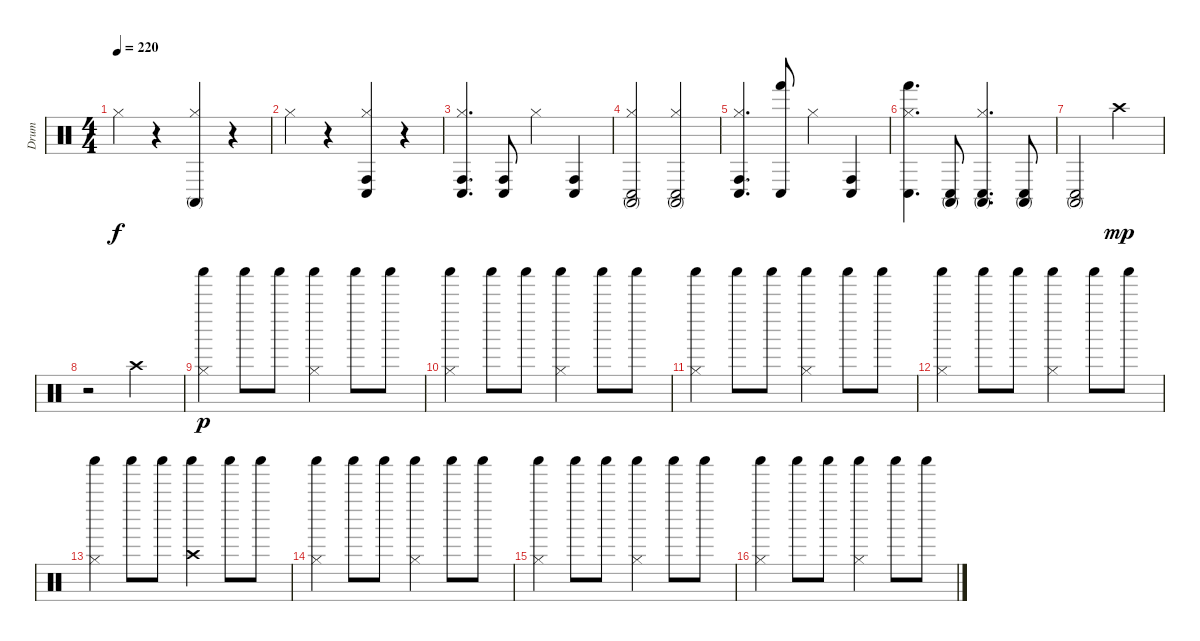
\track ("Drum" "Drum") {instrument percussion}
\staff {score}
\articulation defaults
\ts (4 4)
\tempo 220
\clef neutral
\ks c "Hi-Hat (closed)".4{dy f}
r.4 ("Hi-Hat (closed)" "Conga high (mute)").4 r.4 |
"Hi-Hat (closed)".4 r.4 ("Hi-Hat (closed)" "Conga low (hit)" "Conga high (hit)").4 r.4 |
("Hi-Hat (closed)" "Conga low (hit)" "Conga high (hit)").4{d} ("Conga low (hit)" "Conga high (hit)").8 "Hi-Hat (closed)".4 ("Conga low (hit)" "Conga high (hit)").4 |
("Hi-Hat (closed)" "Conga low (hit)" "Conga high (mute)").2 ("Hi-Hat (closed)" "Conga low (hit)" "Conga high (mute)").2 |
("Hi-Hat (closed)" "Conga low (hit)" "Conga high (hit)").4{d} ("Conga low (hit)" "Hand (hit)").8 "Hi-Hat (closed)".4 ("Conga low (hit)" "Conga high (hit)").4 |
("Hi-Hat (closed)" "Conga low (hit)" "Hand (hit)").4{d} ("Conga low (hit)" "Conga high (mute)").8 ("Hi-Hat (closed)" "Conga low (hit)" "Conga high (mute)").4{d} ("Conga low (hit)" "Conga high (mute)").8 |
("Conga low (hit)" "Conga high (mute)").2 "Crash high (hit)".2{dy mp} |
r.2 "Crash high (hit)".2 |
("Hi-Hat (closed)" "Shaker (hit)").4{dy p} "Shaker (hit)".8 "Shaker (hit)".8 ("Hi-Hat (closed)" "Shaker (hit)").4 "Shaker (hit)".8 "Shaker (hit)".8 |
("Hi-Hat (closed)" "Shaker (hit)").4 "Shaker (hit)".8 "Shaker (hit)".8 ("Hi-Hat (closed)" "Shaker (hit)").4 "Shaker (hit)".8 "Shaker (hit)".8 |
("Hi-Hat (closed)" "Shaker (hit)").4 "Shaker (hit)".8 "Shaker (hit)".8 ("Hi-Hat (closed)" "Shaker (hit)").4 "Shaker (hit)".8 "Shaker (hit)".8 |
("Hi-Hat (closed)" "Shaker (hit)").4 "Shaker (hit)".8 "Shaker (hit)".8 ("Hi-Hat (closed)" "Shaker (hit)").4 "Shaker (hit)".8 "Shaker (hit)".8 |
("Hi-Hat (closed)" "Shaker (hit)").4 "Shaker (hit)".8 "Shaker (hit)".8 ("Crash high (hit)" "Shaker (hit)").4 "Shaker (hit)".8 "Shaker (hit)".8 |
("Hi-Hat (closed)" "Shaker (hit)").4 "Shaker (hit)".8 "Shaker (hit)".8 ("Hi-Hat (closed)" "Shaker (hit)").4 "Shaker (hit)".8 "Shaker (hit)".8 |
("Hi-Hat (closed)" "Shaker (hit)").4 "Shaker (hit)".8 "Shaker (hit)".8 ("Hi-Hat (closed)" "Shaker (hit)").4 "Shaker (hit)".8 "Shaker (hit)".8 |
("Hi-Hat (closed)" "Shaker (hit)").4 "Shaker (hit)".8 "Shaker (hit)".8 ("Hi-Hat (closed)" "Shaker (hit)").4 "Shaker (hit)".8 "Shaker (hit)".8
